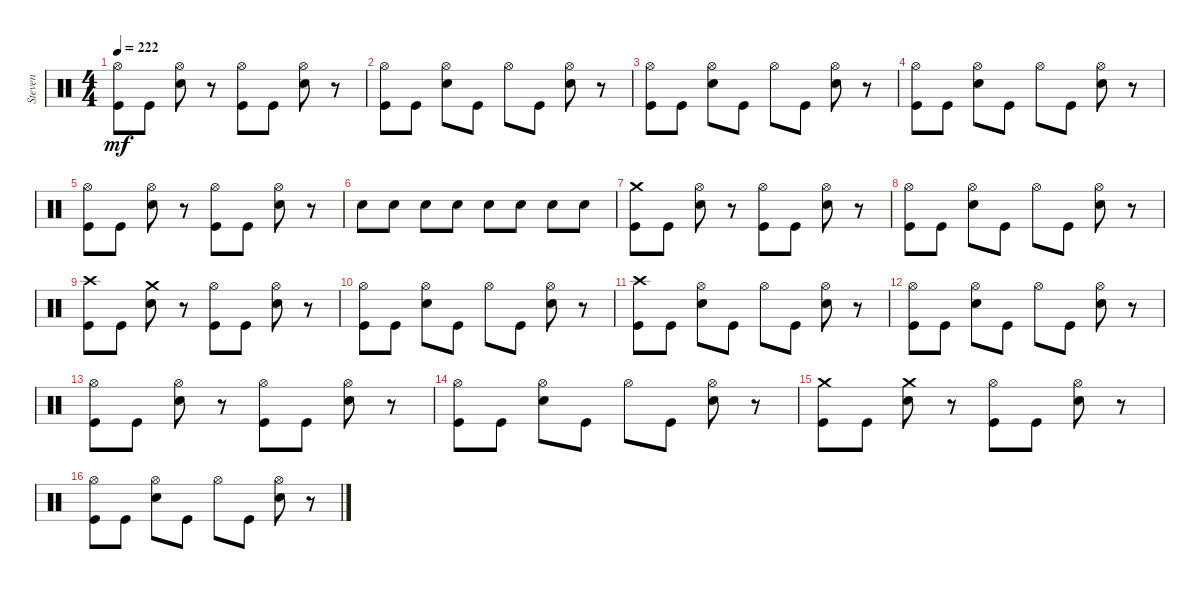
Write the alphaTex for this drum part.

\track ("Steven" "Steven") {instrument percussion}
\staff {score}
\articulation defaults
\ts (4 4)
\tempo 222
\clef neutral
\ks c
("Kick (hit)" "Hi-Hat (open)").8{dy mf} "Kick (hit)".8 ("Snare (hit) 2" "Hi-Hat (open)").8 r.8 ("Kick (hit)" "Hi-Hat (open)").8 "Kick (hit)".8 ("Snare (hit) 2" "Hi-Hat (open)").8 r.8 |
("Kick (hit)" "Hi-Hat (open)").8 "Kick (hit)".8 ("Snare (hit) 2" "Hi-Hat (open)").8 "Kick (hit)".8 "Hi-Hat (open)".8 "Kick (hit)".8 ("Snare (hit) 2" "Hi-Hat (open)").8 r.8 |
("Kick (hit)" "Hi-Hat (open)").8 "Kick (hit)".8 ("Snare (hit) 2" "Hi-Hat (open)").8 "Kick (hit)".8 "Hi-Hat (open)".8 "Kick (hit)".8 ("Snare (hit) 2" "Hi-Hat (open)").8 r.8 |
("Kick (hit)" "Hi-Hat (open)").8 "Kick (hit)".8 ("Snare (hit) 2" "Hi-Hat (open)").8 "Kick (hit)".8 "Hi-Hat (open)".8 "Kick (hit)".8 ("Snare (hit) 2" "Hi-Hat (open)").8 r.8 |
("Kick (hit)" "Hi-Hat (open)").8 "Kick (hit)".8 ("Snare (hit) 2" "Hi-Hat (open)").8 r.8 ("Kick (hit)" "Hi-Hat (open)").8 "Kick (hit)".8 ("Snare (hit) 2" "Hi-Hat (open)").8 r.8 |
"Snare (hit) 2".8 "Snare (hit) 2".8 "Snare (hit) 2".8 "Snare (hit) 2".8 "Snare (hit) 2".8 "Snare (hit) 2".8 "Snare (hit) 2".8 "Snare (hit) 2".8 |
("Kick (hit)" "Crash medium (hit)").8 "Kick (hit)".8 ("Snare (hit) 2" "Hi-Hat (open)").8 r.8 ("Kick (hit)" "Hi-Hat (open)").8 "Kick (hit)".8 ("Snare (hit) 2" "Hi-Hat (open)").8 r.8 |
("Kick (hit)" "Hi-Hat (open)").8 "Kick (hit)".8 ("Snare (hit) 2" "Hi-Hat (open)").8 "Kick (hit)".8 "Hi-Hat (open)".8 "Kick (hit)".8 ("Snare (hit) 2" "Hi-Hat (open)").8 r.8 |
("Kick (hit)" "Crash high (hit)").8 "Kick (hit)".8 ("Snare (hit) 2" "Crash medium (hit)").8 r.8 ("Kick (hit)" "Hi-Hat (open)").8 "Kick (hit)".8 ("Snare (hit) 2" "Hi-Hat (open)").8 r.8 |
("Kick (hit)" "Hi-Hat (open)").8 "Kick (hit)".8 ("Snare (hit) 2" "Hi-Hat (open)").8 "Kick (hit)".8 "Hi-Hat (open)".8 "Kick (hit)".8 ("Snare (hit) 2" "Hi-Hat (open)").8 r.8 |
("Kick (hit)" "Crash high (hit)").8 "Kick (hit)".8 ("Snare (hit) 2" "Hi-Hat (open)").8 "Kick (hit)".8 "Hi-Hat (open)".8 "Kick (hit)".8 ("Snare (hit) 2" "Hi-Hat (open)").8 r.8 |
("Kick (hit)" "Hi-Hat (open)").8 "Kick (hit)".8 ("Snare (hit) 2" "Hi-Hat (open)").8 "Kick (hit)".8 "Hi-Hat (open)".8 "Kick (hit)".8 ("Snare (hit) 2" "Hi-Hat (open)").8 r.8 |
("Kick (hit)" "Hi-Hat (open)").8 "Kick (hit)".8 ("Snare (hit) 2" "Hi-Hat (open)").8 r.8 ("Kick (hit)" "Hi-Hat (open)").8 "Kick (hit)".8 ("Snare (hit) 2" "Hi-Hat (open)").8 r.8 |
("Kick (hit)" "Hi-Hat (open)").8 "Kick (hit)".8 ("Snare (hit) 2" "Hi-Hat (open)").8 "Kick (hit)".8 "Hi-Hat (open)".8 "Kick (hit)".8 ("Snare (hit) 2" "Hi-Hat (open)").8 r.8 |
("Kick (hit)" "Crash medium (hit)").8 "Kick (hit)".8 ("Snare (hit) 2" "Crash medium (hit)").8 r.8 ("Kick (hit)" "Hi-Hat (open)").8 "Kick (hit)".8 ("Snare (hit) 2" "Hi-Hat (open)").8 r.8 |
("Kick (hit)" "Hi-Hat (open)").8 "Kick (hit)".8 ("Snare (hit) 2" "Hi-Hat (open)").8 "Kick (hit)".8 "Hi-Hat (open)".8 "Kick (hit)".8 ("Snare (hit) 2" "Hi-Hat (open)").8 r.8
